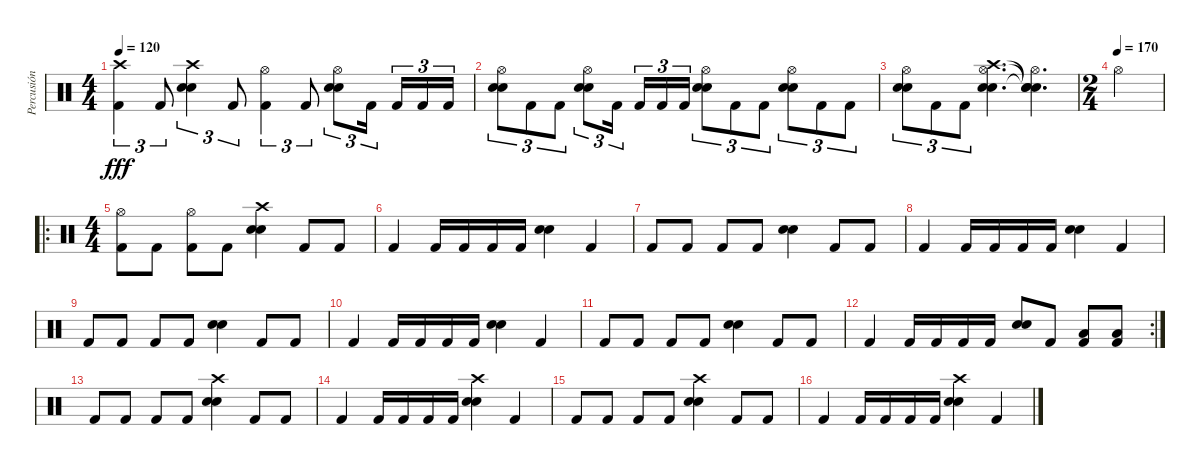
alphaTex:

\track ("Percusión" "Percusión") {instrument percussion}
\staff {score}
\articulation defaults
\ts (4 4)
\tempo 120
\clef neutral
\ks c
("Kick (hit) 2" "Crash high (hit)").4{tu (3 2) dy fff} "Kick (hit) 2".8{tu (3 2)} ("Snare (hit) 2" "Electric Snare (hit)" "Crash high (hit)").4{tu (3 2)} "Kick (hit) 2".8{tu (3 2)} ("Kick (hit) 2" "Hi-Hat (open)").4{tu (3 2)} "Kick (hit) 2".8{tu (3 2)} ("Snare (hit) 2" "Electric Snare (hit)" "Hi-Hat (open)").8{tu (3 2)} "Kick (hit) 2".16{tu (3 2) beam splitsecondary} "Kick (hit) 2".16{tu (3 2)} "Kick (hit) 2".16{tu (3 2)} "Kick (hit) 2".16{tu (3 2)} |
("Snare (hit) 2" "Electric Snare (hit)" "Hi-Hat (open)").8{tu (3 2)} "Kick (hit) 2".8{tu (3 2)} "Kick (hit) 2".8{tu (3 2)} ("Snare (hit) 2" "Electric Snare (hit)" "Hi-Hat (open)").8{tu (3 2)} "Kick (hit) 2".16{tu (3 2) beam splitsecondary} "Kick (hit) 2".16{tu (3 2)} "Kick (hit) 2".16{tu (3 2)} "Kick (hit) 2".16{tu (3 2)} ("Snare (hit) 2" "Electric Snare (hit)" "Hi-Hat (open)").8{tu (3 2)} "Kick (hit) 2".8{tu (3 2)} "Kick (hit) 2".8{tu (3 2)} ("Snare (hit) 2" "Electric Snare (hit)" "Hi-Hat (open)").8{tu (3 2)} "Kick (hit) 2".8{tu (3 2)} "Kick (hit) 2".8{tu (3 2)} |
("Snare (hit) 2" "Electric Snare (hit)" "Hi-Hat (open)").8{tu (3 2)} "Kick (hit) 2".8{tu (3 2)} "Kick (hit) 2".8{tu (3 2)} ("Snare (hit) 2" "Electric Snare (hit)" "Hi-Hat (open)" "Crash high (hit)").4{d} ("Hi-Hat (open)" "Snare (hit)"{t} "Snare (hit)"{t} "Snare (hit)"{t}).4{d} |
\ts (2 4)
\tempo (170)
"Hi-Hat (open)".2 |
\ro
\ts (4 4)
("Kick (hit) 2" "Hi-Hat (open)").8 "Kick (hit) 2".8 ("Kick (hit) 2" "Hi-Hat (open)").8 "Kick (hit) 2".8 ("Snare (hit) 2" "Electric Snare (hit)" "Crash high (hit)").4 "Kick (hit) 2".8 "Kick (hit) 2".8 |
"Kick (hit) 2".4 "Kick (hit) 2".16 "Kick (hit) 2".16 "Kick (hit) 2".16 "Kick (hit) 2".16 ("Snare (hit) 2" "Electric Snare (hit)").4 "Kick (hit) 2".4 |
"Kick (hit) 2".8 "Kick (hit) 2".8 "Kick (hit) 2".8 "Kick (hit) 2".8 ("Snare (hit) 2" "Electric Snare (hit)").4 "Kick (hit) 2".8 "Kick (hit) 2".8 |
"Kick (hit) 2".4 "Kick (hit) 2".16 "Kick (hit) 2".16 "Kick (hit) 2".16 "Kick (hit) 2".16 ("Snare (hit) 2" "Electric Snare (hit)").4 "Kick (hit) 2".4 |
"Kick (hit) 2".8 "Kick (hit) 2".8 "Kick (hit) 2".8 "Kick (hit) 2".8 ("Snare (hit) 2" "Electric Snare (hit)").4 "Kick (hit) 2".8 "Kick (hit) 2".8 |
"Kick (hit) 2".4 "Kick (hit) 2".16 "Kick (hit) 2".16 "Kick (hit) 2".16 "Kick (hit) 2".16 ("Snare (hit) 2" "Electric Snare (hit)").4 "Kick (hit) 2".4 |
"Kick (hit) 2".8 "Kick (hit) 2".8 "Kick (hit) 2".8 "Kick (hit) 2".8 ("Snare (hit) 2" "Electric Snare (hit)").4 "Kick (hit) 2".8 "Kick (hit) 2".8 |
\rc 2 "Kick (hit) 2".4 "Kick (hit) 2".16 "Kick (hit) 2".16 "Kick (hit) 2".16 "Kick (hit) 2".16
("Snare (hit) 2" "Electric Snare (hit)").8 "Kick (hit) 2".8 ("Kick (hit) 2" "Low Tom (hit)").8 ("Kick (hit) 2" "Low Tom (hit)").8 |
"Kick (hit) 2".8 "Kick (hit) 2".8 "Kick (hit) 2".8 "Kick (hit) 2".8 ("Snare (hit) 2" "Electric Snare (hit)" "Crash high (hit)").4 "Kick (hit) 2".8 "Kick (hit) 2".8 |
"Kick (hit) 2".4 "Kick (hit) 2".16 "Kick (hit) 2".16 "Kick (hit) 2".16 "Kick (hit) 2".16 ("Snare (hit) 2" "Electric Snare (hit)" "Crash high (hit)").4 "Kick (hit) 2".4 |
"Kick (hit) 2".8 "Kick (hit) 2".8 "Kick (hit) 2".8 "Kick (hit) 2".8 ("Snare (hit) 2" "Electric Snare (hit)" "Crash high (hit)").4 "Kick (hit) 2".8 "Kick (hit) 2".8 |
"Kick (hit) 2".4 "Kick (hit) 2".16 "Kick (hit) 2".16 "Kick (hit) 2".16 "Kick (hit) 2".16 ("Snare (hit) 2" "Electric Snare (hit)" "Crash high (hit)").4 "Kick (hit) 2".4
